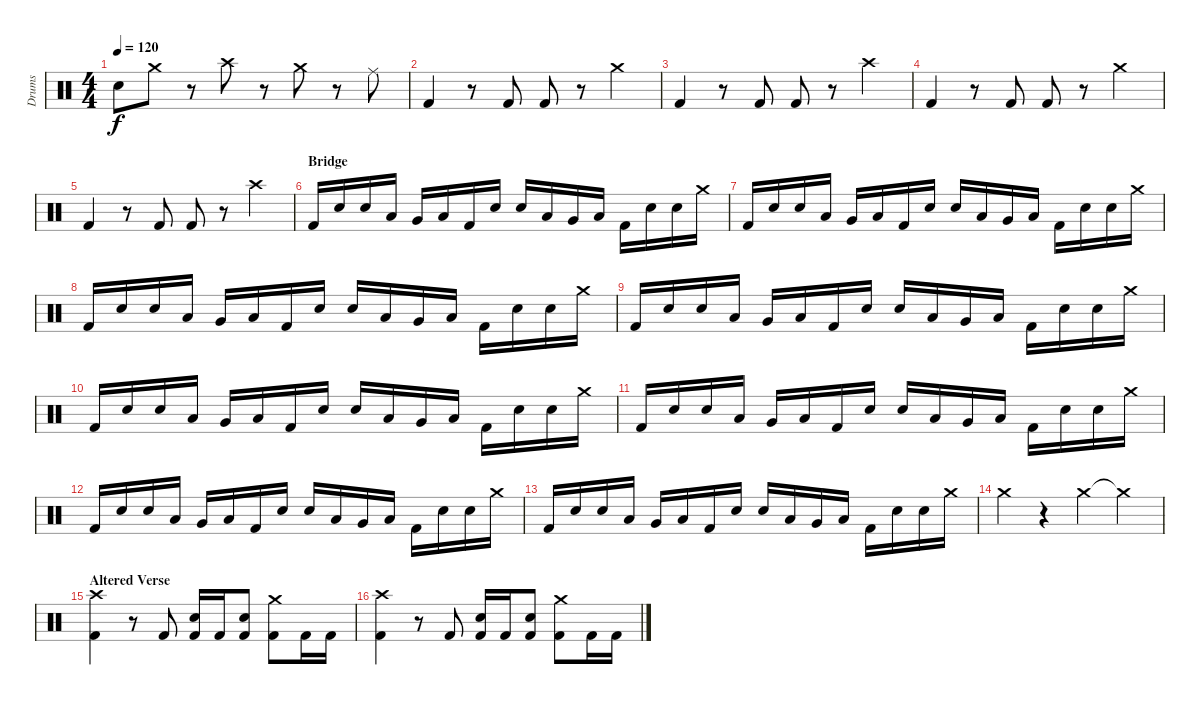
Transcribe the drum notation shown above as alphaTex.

\track ("Drums" "Drums") {instrument percussion}
\staff {score}
\articulation defaults
\ts (4 4)
\tempo 120
\clef neutral
\ks c "Snare (hit)"{t}.8{dy f} "Crash medium (hit)".8
r.8 "Crash high (hit)".8 r.8 "Crash medium (hit)".8 r.8 "Ride (middle)".8 |
"Kick (hit) 2".4 r.8 "Kick (hit) 2".8 "Kick (hit) 2".8 r.8 "Crash medium (hit)".4 |
"Kick (hit) 2".4 r.8 "Kick (hit) 2".8 "Kick (hit) 2".8 r.8 "Crash high (hit)".4 |
"Kick (hit) 2".4 r.8 "Kick (hit) 2".8 "Kick (hit) 2".8 r.8 "Crash medium (hit)".4 |
"Kick (hit) 2".4 r.8 "Kick (hit) 2".8 "Kick (hit) 2".8 r.8 "Crash high (hit)".4 |
\section ("" "Bridge")
"Kick (hit) 2".16 "Snare (hit) 2".16 "Snare (hit) 2".16 "Low Tom (hit)".16 "Very Low Tom (hit)".16 "Low Floor Tom (hit)".16 "Kick (hit) 2".16 "Snare (hit) 2".16 "Snare (hit) 2".16 "Low Tom (hit)".16 "Very Low Tom (hit)".16 "Low Floor Tom (hit)".16 "Kick (hit) 2".16 "Snare (hit) 2".16 "Snare (hit) 2".16 "Crash medium (hit)".16 |
"Kick (hit) 2".16 "Snare (hit) 2".16 "Snare (hit) 2".16 "Low Tom (hit)".16 "Very Low Tom (hit)".16 "Low Floor Tom (hit)".16 "Kick (hit) 2".16 "Snare (hit) 2".16 "Snare (hit) 2".16 "Low Tom (hit)".16 "Very Low Tom (hit)".16 "Low Floor Tom (hit)".16 "Kick (hit) 2".16 "Snare (hit) 2".16 "Snare (hit) 2".16 "Crash medium (hit)".16 |
"Kick (hit) 2".16 "Snare (hit) 2".16 "Snare (hit) 2".16 "Low Tom (hit)".16 "Very Low Tom (hit)".16 "Low Floor Tom (hit)".16 "Kick (hit) 2".16 "Snare (hit) 2".16 "Snare (hit) 2".16 "Low Tom (hit)".16 "Very Low Tom (hit)".16 "Low Floor Tom (hit)".16 "Kick (hit) 2".16 "Snare (hit) 2".16 "Snare (hit) 2".16 "Crash medium (hit)".16 |
"Kick (hit) 2".16 "Snare (hit) 2".16 "Snare (hit) 2".16 "Low Tom (hit)".16 "Very Low Tom (hit)".16 "Low Floor Tom (hit)".16 "Kick (hit) 2".16 "Snare (hit) 2".16 "Snare (hit) 2".16 "Low Tom (hit)".16 "Very Low Tom (hit)".16 "Low Floor Tom (hit)".16 "Kick (hit) 2".16 "Snare (hit) 2".16 "Snare (hit) 2".16 "Crash medium (hit)".16 |
"Kick (hit) 2".16 "Snare (hit) 2".16 "Snare (hit) 2".16 "Low Tom (hit)".16 "Very Low Tom (hit)".16 "Low Floor Tom (hit)".16 "Kick (hit) 2".16 "Snare (hit) 2".16 "Snare (hit) 2".16 "Low Tom (hit)".16 "Very Low Tom (hit)".16 "Low Floor Tom (hit)".16 "Kick (hit) 2".16 "Snare (hit) 2".16 "Snare (hit) 2".16 "Crash medium (hit)".16 |
"Kick (hit) 2".16 "Snare (hit) 2".16 "Snare (hit) 2".16 "Low Tom (hit)".16 "Very Low Tom (hit)".16 "Low Floor Tom (hit)".16 "Kick (hit) 2".16 "Snare (hit) 2".16 "Snare (hit) 2".16 "Low Tom (hit)".16 "Very Low Tom (hit)".16 "Low Floor Tom (hit)".16 "Kick (hit) 2".16 "Snare (hit) 2".16 "Snare (hit) 2".16 "Crash medium (hit)".16 |
"Kick (hit) 2".16 "Snare (hit) 2".16 "Snare (hit) 2".16 "Low Tom (hit)".16 "Very Low Tom (hit)".16 "Low Floor Tom (hit)".16 "Kick (hit) 2".16 "Snare (hit) 2".16 "Snare (hit) 2".16 "Low Tom (hit)".16 "Very Low Tom (hit)".16 "Low Floor Tom (hit)".16 "Kick (hit) 2".16 "Snare (hit) 2".16 "Snare (hit) 2".16 "Crash medium (hit)".16 |
"Kick (hit) 2".16 "Snare (hit) 2".16 "Snare (hit) 2".16 "Low Tom (hit)".16 "Very Low Tom (hit)".16 "Low Floor Tom (hit)".16 "Kick (hit) 2".16 "Snare (hit) 2".16 "Snare (hit) 2".16 "Low Tom (hit)".16 "Very Low Tom (hit)".16 "Low Floor Tom (hit)".16 "Kick (hit) 2".16 "Snare (hit) 2".16 "Snare (hit) 2".16 "Crash medium (hit)".16 |
"Crash medium (hit)".4 r.4 "Crash medium (hit)".4 "Crash medium (hit)"{t}.4 |
\section ("" "Altered Verse")
("Crash high (hit)" "Kick (hit) 2").4 r.8 "Kick (hit) 2".8 ("Snare (hit) 2" "Kick (hit) 2").16 "Kick (hit) 2".16 ("Snare (hit) 2" "Kick (hit) 2").8 ("Crash medium (hit)" "Kick (hit) 2").8 "Kick (hit) 2".16 "Kick (hit) 2".16 |
("Crash high (hit)" "Kick (hit) 2").4 r.8 "Kick (hit) 2".8 ("Snare (hit) 2" "Kick (hit) 2").16 "Kick (hit) 2".16 ("Snare (hit) 2" "Kick (hit) 2").8 ("Crash medium (hit)" "Kick (hit) 2").8 "Kick (hit) 2".16 "Kick (hit) 2".16
